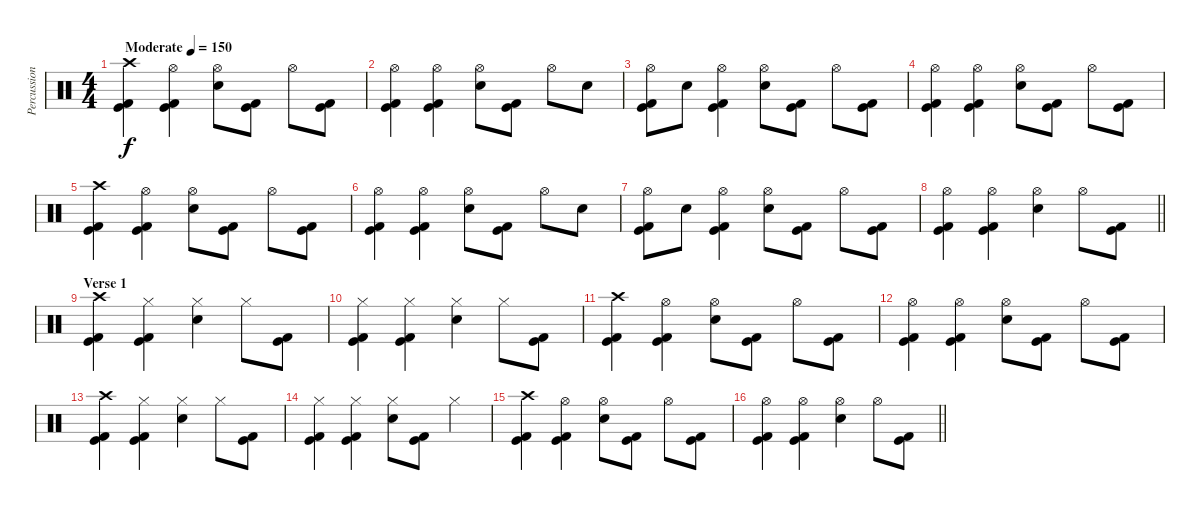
\track ("Percussion" "Percussion") {instrument percussion}
\staff {score}
\articulation defaults
\ts (4 4)
\tempo (150 "Moderate")
\clef neutral
\ks c
("Crash high (hit)" "Kick (hit)" "Kick (hit) 2").4{dy f} ("Hi-Hat (open)" "Kick (hit)" "Kick (hit) 2").4 ("Hi-Hat (open)" "Electric Snare (hit)").8 ("Kick (hit)" "Kick (hit) 2").8 "Hi-Hat (open)".8 ("Kick (hit)" "Kick (hit) 2").8 |
("Hi-Hat (open)" "Kick (hit)" "Kick (hit) 2").4 ("Hi-Hat (open)" "Kick (hit)" "Kick (hit) 2").4 ("Hi-Hat (open)" "Electric Snare (hit)").8 ("Kick (hit)" "Kick (hit) 2").8 "Hi-Hat (open)".8 "Electric Snare (hit)".8 |
("Hi-Hat (open)" "Kick (hit)" "Kick (hit) 2").8 "Electric Snare (hit)".8 ("Hi-Hat (open)" "Kick (hit)" "Kick (hit) 2").4 ("Hi-Hat (open)" "Electric Snare (hit)").8 ("Kick (hit)" "Kick (hit) 2").8 "Hi-Hat (open)".8 ("Kick (hit)" "Kick (hit) 2").8 |
("Hi-Hat (open)" "Kick (hit)" "Kick (hit) 2").4 ("Hi-Hat (open)" "Kick (hit)" "Kick (hit) 2").4 ("Hi-Hat (open)" "Electric Snare (hit)").8 ("Kick (hit)" "Kick (hit) 2").8 "Hi-Hat (open)".8 ("Kick (hit)" "Kick (hit) 2").8 |
("Crash high (hit)" "Kick (hit)" "Kick (hit) 2").4 ("Hi-Hat (open)" "Kick (hit)" "Kick (hit) 2").4 ("Hi-Hat (open)" "Electric Snare (hit)").8 ("Kick (hit)" "Kick (hit) 2").8 "Hi-Hat (open)".8 ("Kick (hit)" "Kick (hit) 2").8 |
("Hi-Hat (open)" "Kick (hit)" "Kick (hit) 2").4 ("Hi-Hat (open)" "Kick (hit)" "Kick (hit) 2").4 ("Hi-Hat (open)" "Electric Snare (hit)").8 ("Kick (hit)" "Kick (hit) 2").8 "Hi-Hat (open)".8 "Electric Snare (hit)".8 |
("Hi-Hat (open)" "Kick (hit)" "Kick (hit) 2").8 "Electric Snare (hit)".8 ("Hi-Hat (open)" "Kick (hit)" "Kick (hit) 2").4 ("Hi-Hat (open)" "Electric Snare (hit)").8 ("Kick (hit)" "Kick (hit) 2").8 "Hi-Hat (open)".8 ("Kick (hit)" "Kick (hit) 2").8 |
\barLineRight lightlight
("Hi-Hat (open)" "Kick (hit)" "Kick (hit) 2").4 ("Hi-Hat (open)" "Kick (hit)" "Kick (hit) 2").4 ("Hi-Hat (open)" "Electric Snare (hit)").4 "Hi-Hat (open)".8 ("Kick (hit)" "Kick (hit) 2").8 |
\section ("" "Verse 1")
("Crash high (hit)" "Kick (hit)" "Kick (hit) 2").4 ("Hi-Hat (closed)" "Kick (hit)" "Kick (hit) 2").4 ("Hi-Hat (closed)" "Electric Snare (hit)").4 "Hi-Hat (closed)".8 ("Kick (hit)" "Kick (hit) 2").8 |
("Hi-Hat (closed)" "Kick (hit)" "Kick (hit) 2").4 ("Hi-Hat (closed)" "Kick (hit)" "Kick (hit) 2").4 ("Hi-Hat (closed)" "Electric Snare (hit)").4 "Hi-Hat (closed)".8 ("Kick (hit)" "Kick (hit) 2").8 |
("Crash high (hit)" "Kick (hit)" "Kick (hit) 2").4 ("Hi-Hat (open)" "Kick (hit)" "Kick (hit) 2").4 ("Hi-Hat (open)" "Electric Snare (hit)").8 ("Kick (hit)" "Kick (hit) 2").8 "Hi-Hat (open)".8 ("Kick (hit)" "Kick (hit) 2").8 |
("Hi-Hat (open)" "Kick (hit)" "Kick (hit) 2").4 ("Hi-Hat (open)" "Kick (hit)" "Kick (hit) 2").4 ("Hi-Hat (open)" "Electric Snare (hit)").8 ("Kick (hit)" "Kick (hit) 2").8 "Hi-Hat (open)".8 ("Kick (hit)" "Kick (hit) 2").8 |
("Crash high (hit)" "Kick (hit)" "Kick (hit) 2").4 ("Hi-Hat (closed)" "Kick (hit)" "Kick (hit) 2").4 ("Hi-Hat (closed)" "Electric Snare (hit)").4 "Hi-Hat (closed)".8 ("Kick (hit)" "Kick (hit) 2").8 |
("Hi-Hat (closed)" "Kick (hit)" "Kick (hit) 2").4 ("Hi-Hat (closed)" "Kick (hit)" "Kick (hit) 2").4 ("Hi-Hat (closed)" "Electric Snare (hit)").8 ("Kick (hit)" "Kick (hit) 2").8 "Hi-Hat (closed)".4 |
("Crash high (hit)" "Kick (hit)" "Kick (hit) 2").4 ("Hi-Hat (open)" "Kick (hit)" "Kick (hit) 2").4 ("Hi-Hat (open)" "Electric Snare (hit)").8 ("Kick (hit)" "Kick (hit) 2").8 "Hi-Hat (open)".8 ("Kick (hit)" "Kick (hit) 2").8 |
\barLineRight lightlight
("Hi-Hat (open)" "Kick (hit)" "Kick (hit) 2").4 ("Hi-Hat (open)" "Kick (hit)" "Kick (hit) 2").4 ("Hi-Hat (open)" "Electric Snare (hit)").4 "Hi-Hat (open)".8 ("Kick (hit)" "Kick (hit) 2").8
